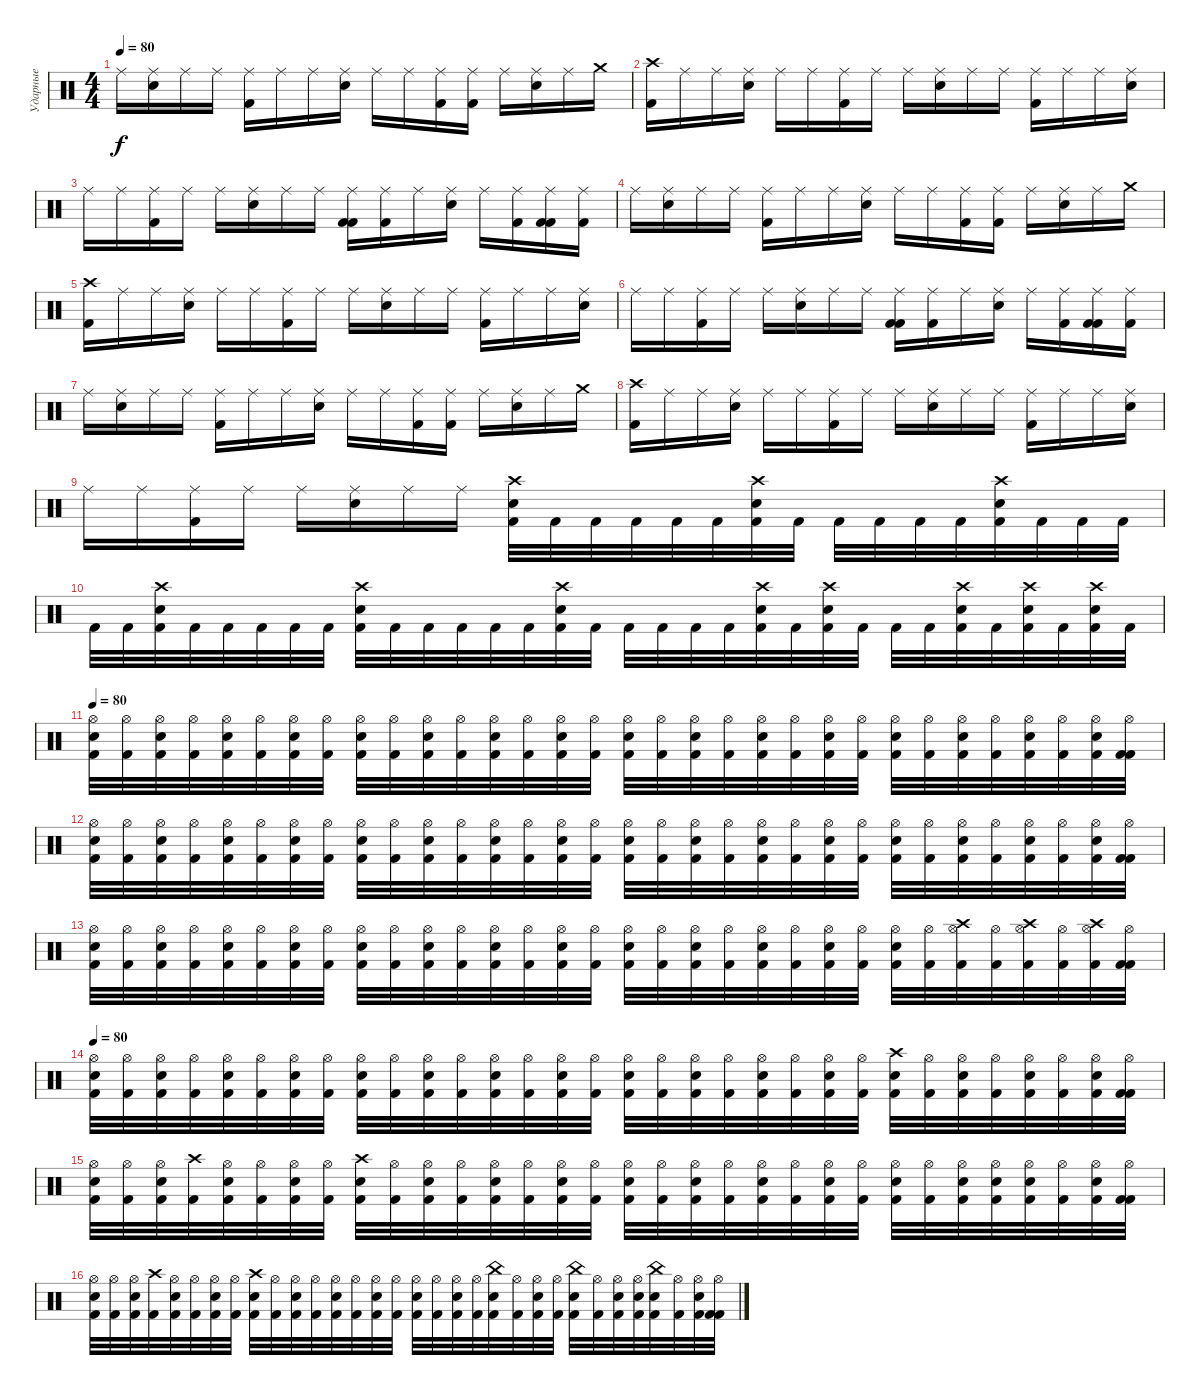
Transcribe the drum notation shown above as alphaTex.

\track ("Ударные" "Ударные") {instrument percussion}
\staff {score}
\articulation defaults
\ts (4 4)
\tempo 80
\clef neutral
\ks c "Ride (middle)".16{dy f}
("Ride (middle)" "Snare (hit) 2").16 "Ride (middle)".16 "Ride (middle)".16 ("Ride (middle)" "Kick (hit) 2").16 "Ride (middle)".16 "Ride (middle)".16 ("Snare (hit) 2" "Ride (middle)").16 "Ride (middle)".16 "Ride (middle)".16 ("Ride (middle)" "Kick (hit) 2").16 ("Ride (middle)" "Kick (hit) 2").16 "Ride (middle)".16 ("Ride (middle)" "Snare (hit) 2").16 "Ride (middle)".16 "Crash medium (hit)".16 |
("Kick (hit) 2" "Crash high (hit)").16 "Ride (middle)".16 "Ride (middle)".16 ("Snare (hit) 2" "Ride (middle)").16 "Ride (middle)".16 "Ride (middle)".16 ("Kick (hit) 2" "Ride (middle)").16 "Ride (middle)".16 "Ride (middle)".16 ("Snare (hit) 2" "Ride (middle)").16 "Ride (middle)".16 "Ride (middle)".16 ("Kick (hit) 2" "Ride (middle)").16 "Ride (middle)".16 "Ride (middle)".16 ("Snare (hit) 2" "Ride (middle)").16 |
"Ride (middle)".16 "Ride (middle)".16 ("Kick (hit) 2" "Ride (middle)").16 "Ride (middle)".16 "Ride (middle)".16 ("Snare (hit) 2" "Ride (middle)").16 "Ride (middle)".16 "Ride (middle)".16 ("Kick (hit) 2" "Kick (hit) 2" "Ride (middle)").16 ("Kick (hit) 2" "Ride (middle)").16 "Ride (middle)".16 ("Snare (hit) 2" "Ride (middle)").16 "Ride (middle)".16 ("Kick (hit) 2" "Ride (middle)").16 ("Kick (hit) 2" "Kick (hit) 2" "Ride (middle)").16 ("Kick (hit) 2" "Ride (middle)").16 |
"Ride (middle)".16 ("Ride (middle)" "Snare (hit) 2").16 "Ride (middle)".16 "Ride (middle)".16 ("Ride (middle)" "Kick (hit) 2").16 "Ride (middle)".16 "Ride (middle)".16 ("Snare (hit) 2" "Ride (middle)").16 "Ride (middle)".16 "Ride (middle)".16 ("Ride (middle)" "Kick (hit) 2").16 ("Ride (middle)" "Kick (hit) 2").16 "Ride (middle)".16 ("Ride (middle)" "Snare (hit) 2").16 "Ride (middle)".16 "Crash medium (hit)".16 |
("Kick (hit) 2" "Crash high (hit)").16 "Ride (middle)".16 "Ride (middle)".16 ("Snare (hit) 2" "Ride (middle)").16 "Ride (middle)".16 "Ride (middle)".16 ("Kick (hit) 2" "Ride (middle)").16 "Ride (middle)".16 "Ride (middle)".16 ("Snare (hit) 2" "Ride (middle)").16 "Ride (middle)".16 "Ride (middle)".16 ("Kick (hit) 2" "Ride (middle)").16 "Ride (middle)".16 "Ride (middle)".16 ("Snare (hit) 2" "Ride (middle)").16 |
"Ride (middle)".16 "Ride (middle)".16 ("Kick (hit) 2" "Ride (middle)").16 "Ride (middle)".16 "Ride (middle)".16 ("Snare (hit) 2" "Ride (middle)").16 "Ride (middle)".16 "Ride (middle)".16 ("Kick (hit) 2" "Kick (hit) 2" "Ride (middle)").16 ("Kick (hit) 2" "Ride (middle)").16 "Ride (middle)".16 ("Snare (hit) 2" "Ride (middle)").16 "Ride (middle)".16 ("Kick (hit) 2" "Ride (middle)").16 ("Kick (hit) 2" "Kick (hit) 2" "Ride (middle)").16 ("Kick (hit) 2" "Ride (middle)").16 |
"Ride (middle)".16 ("Ride (middle)" "Snare (hit) 2").16 "Ride (middle)".16 "Ride (middle)".16 ("Ride (middle)" "Kick (hit) 2").16 "Ride (middle)".16 "Ride (middle)".16 ("Snare (hit) 2" "Ride (middle)").16 "Ride (middle)".16 "Ride (middle)".16 ("Ride (middle)" "Kick (hit) 2").16 ("Ride (middle)" "Kick (hit) 2").16 "Ride (middle)".16 ("Ride (middle)" "Snare (hit) 2").16 "Ride (middle)".16 "Crash medium (hit)".16 |
("Kick (hit) 2" "Crash high (hit)").16 "Ride (middle)".16 "Ride (middle)".16 ("Snare (hit) 2" "Ride (middle)").16 "Ride (middle)".16 "Ride (middle)".16 ("Kick (hit) 2" "Ride (middle)").16 "Ride (middle)".16 "Ride (middle)".16 ("Snare (hit) 2" "Ride (middle)").16 "Ride (middle)".16 "Ride (middle)".16 ("Kick (hit) 2" "Ride (middle)").16 "Ride (middle)".16 "Ride (middle)".16 ("Snare (hit) 2" "Ride (middle)").16 |
"Ride (middle)".16 "Ride (middle)".16 ("Kick (hit) 2" "Ride (middle)").16 "Ride (middle)".16 "Ride (middle)".16 ("Snare (hit) 2" "Ride (middle)").16 "Ride (middle)".16 "Ride (middle)".16 ("Kick (hit) 2" "Snare (hit) 2" "Crash high (hit)").32 "Kick (hit) 2".32 "Kick (hit) 2".32 "Kick (hit) 2".32 "Kick (hit) 2".32 "Kick (hit) 2".32 ("Kick (hit) 2" "Crash high (hit)" "Snare (hit) 2").32 "Kick (hit) 2".32 "Kick (hit) 2".32 "Kick (hit) 2".32 "Kick (hit) 2".32 "Kick (hit) 2".32 ("Kick (hit) 2" "Crash high (hit)" "Snare (hit) 2").32 "Kick (hit) 2".32 "Kick (hit) 2".32 "Kick (hit) 2".32 |
"Kick (hit) 2".32 "Kick (hit) 2".32 ("Kick (hit) 2" "Crash high (hit)" "Snare (hit) 2").32 "Kick (hit) 2".32 "Kick (hit) 2".32 "Kick (hit) 2".32 "Kick (hit) 2".32 "Kick (hit) 2".32 ("Kick (hit) 2" "Crash high (hit)" "Snare (hit) 2").32 "Kick (hit) 2".32 "Kick (hit) 2".32 "Kick (hit) 2".32 "Kick (hit) 2".32 "Kick (hit) 2".32 ("Kick (hit) 2" "Crash high (hit)" "Snare (hit) 2").32 "Kick (hit) 2".32 "Kick (hit) 2".32 "Kick (hit) 2".32 "Kick (hit) 2".32 "Kick (hit) 2".32 ("Kick (hit) 2" "Crash high (hit)" "Snare (hit) 2").32 "Kick (hit) 2".32 ("Kick (hit) 2" "Crash high (hit)" "Snare (hit) 2").32 "Kick (hit) 2".32 "Kick (hit) 2".32 "Kick (hit) 2".32 ("Kick (hit) 2" "Crash high (hit)" "Snare (hit) 2").32 "Kick (hit) 2".32 ("Kick (hit) 2" "Crash high (hit)" "Snare (hit) 2").32 "Kick (hit) 2".32 ("Kick (hit) 2" "Crash high (hit)" "Snare (hit) 2").32 "Kick (hit) 2".32 |
\tempo 80
("Hi-Hat (open)" "Electric Snare (hit)" "Kick (hit) 2").32 ("Hi-Hat (open)" "Kick (hit) 2").32 ("Hi-Hat (open)" "Electric Snare (hit)" "Kick (hit) 2").32 ("Hi-Hat (open)" "Kick (hit) 2").32 ("Hi-Hat (open)" "Electric Snare (hit)" "Kick (hit) 2").32 ("Hi-Hat (open)" "Kick (hit) 2").32 ("Hi-Hat (open)" "Electric Snare (hit)" "Kick (hit) 2").32 ("Hi-Hat (open)" "Kick (hit) 2").32 ("Hi-Hat (open)" "Electric Snare (hit)" "Kick (hit) 2").32 ("Hi-Hat (open)" "Kick (hit) 2").32 ("Hi-Hat (open)" "Electric Snare (hit)" "Kick (hit) 2").32 ("Hi-Hat (open)" "Kick (hit) 2").32 ("Hi-Hat (open)" "Electric Snare (hit)" "Kick (hit) 2").32 ("Hi-Hat (open)" "Kick (hit) 2").32 ("Hi-Hat (open)" "Electric Snare (hit)" "Kick (hit) 2").32 ("Hi-Hat (open)" "Kick (hit) 2").32 ("Hi-Hat (open)" "Electric Snare (hit)" "Kick (hit) 2").32 ("Hi-Hat (open)" "Kick (hit) 2").32 ("Hi-Hat (open)" "Electric Snare (hit)" "Kick (hit) 2").32 ("Hi-Hat (open)" "Kick (hit) 2").32 ("Hi-Hat (open)" "Electric Snare (hit)" "Kick (hit) 2").32 ("Hi-Hat (open)" "Kick (hit) 2").32 ("Hi-Hat (open)" "Electric Snare (hit)" "Kick (hit) 2").32 ("Hi-Hat (open)" "Kick (hit) 2").32 ("Hi-Hat (open)" "Electric Snare (hit)" "Kick (hit) 2").32 ("Hi-Hat (open)" "Kick (hit) 2").32 ("Hi-Hat (open)" "Electric Snare (hit)" "Kick (hit) 2").32 ("Hi-Hat (open)" "Kick (hit) 2").32 ("Hi-Hat (open)" "Electric Snare (hit)" "Kick (hit) 2").32 ("Hi-Hat (open)" "Kick (hit) 2").32 ("Hi-Hat (open)" "Electric Snare (hit)" "Kick (hit) 2").32 ("Hi-Hat (open)" "Kick (hit) 2" "Kick (hit) 2").32 |
("Hi-Hat (open)" "Electric Snare (hit)" "Kick (hit) 2").32 ("Hi-Hat (open)" "Kick (hit) 2").32 ("Hi-Hat (open)" "Electric Snare (hit)" "Kick (hit) 2").32 ("Hi-Hat (open)" "Kick (hit) 2").32 ("Hi-Hat (open)" "Electric Snare (hit)" "Kick (hit) 2").32 ("Hi-Hat (open)" "Kick (hit) 2").32 ("Hi-Hat (open)" "Electric Snare (hit)" "Kick (hit) 2").32 ("Hi-Hat (open)" "Kick (hit) 2").32 ("Hi-Hat (open)" "Electric Snare (hit)" "Kick (hit) 2").32 ("Hi-Hat (open)" "Kick (hit) 2").32 ("Hi-Hat (open)" "Electric Snare (hit)" "Kick (hit) 2").32 ("Hi-Hat (open)" "Kick (hit) 2").32 ("Hi-Hat (open)" "Electric Snare (hit)" "Kick (hit) 2").32 ("Hi-Hat (open)" "Kick (hit) 2").32 ("Hi-Hat (open)" "Electric Snare (hit)" "Kick (hit) 2").32 ("Hi-Hat (open)" "Kick (hit) 2").32 ("Hi-Hat (open)" "Electric Snare (hit)" "Kick (hit) 2").32 ("Hi-Hat (open)" "Kick (hit) 2").32 ("Hi-Hat (open)" "Electric Snare (hit)" "Kick (hit) 2").32 ("Hi-Hat (open)" "Kick (hit) 2").32 ("Hi-Hat (open)" "Electric Snare (hit)" "Kick (hit) 2").32 ("Hi-Hat (open)" "Kick (hit) 2").32 ("Hi-Hat (open)" "Electric Snare (hit)" "Kick (hit) 2").32 ("Hi-Hat (open)" "Kick (hit) 2").32 ("Hi-Hat (open)" "Electric Snare (hit)" "Kick (hit) 2").32 ("Hi-Hat (open)" "Kick (hit) 2").32 ("Hi-Hat (open)" "Electric Snare (hit)" "Kick (hit) 2").32 ("Hi-Hat (open)" "Kick (hit) 2").32 ("Hi-Hat (open)" "Electric Snare (hit)" "Kick (hit) 2").32 ("Hi-Hat (open)" "Kick (hit) 2").32 ("Hi-Hat (open)" "Electric Snare (hit)" "Kick (hit) 2").32 ("Hi-Hat (open)" "Kick (hit) 2" "Kick (hit) 2").32 |
("Hi-Hat (open)" "Electric Snare (hit)" "Kick (hit) 2").32 ("Hi-Hat (open)" "Kick (hit) 2").32 ("Hi-Hat (open)" "Electric Snare (hit)" "Kick (hit) 2").32 ("Hi-Hat (open)" "Kick (hit) 2").32 ("Hi-Hat (open)" "Electric Snare (hit)" "Kick (hit) 2").32 ("Hi-Hat (open)" "Kick (hit) 2").32 ("Hi-Hat (open)" "Electric Snare (hit)" "Kick (hit) 2").32 ("Hi-Hat (open)" "Kick (hit) 2").32 ("Hi-Hat (open)" "Electric Snare (hit)" "Kick (hit) 2").32 ("Hi-Hat (open)" "Kick (hit) 2").32 ("Hi-Hat (open)" "Electric Snare (hit)" "Kick (hit) 2").32 ("Hi-Hat (open)" "Kick (hit) 2").32 ("Hi-Hat (open)" "Electric Snare (hit)" "Kick (hit) 2").32 ("Hi-Hat (open)" "Kick (hit) 2").32 ("Hi-Hat (open)" "Electric Snare (hit)" "Kick (hit) 2").32 ("Hi-Hat (open)" "Kick (hit) 2").32 ("Hi-Hat (open)" "Electric Snare (hit)" "Kick (hit) 2").32 ("Hi-Hat (open)" "Kick (hit) 2").32 ("Hi-Hat (open)" "Electric Snare (hit)" "Kick (hit) 2").32 ("Hi-Hat (open)" "Kick (hit) 2").32 ("Hi-Hat (open)" "Electric Snare (hit)" "Kick (hit) 2").32 ("Hi-Hat (open)" "Kick (hit) 2").32 ("Hi-Hat (open)" "Electric Snare (hit)" "Kick (hit) 2").32 ("Hi-Hat (open)" "Kick (hit) 2").32 ("Hi-Hat (open)" "Electric Snare (hit)" "Kick (hit) 2").32 ("Hi-Hat (open)" "Kick (hit) 2").32 ("Hi-Hat (open)" "Crash high (hit)" "Kick (hit) 2").32 ("Hi-Hat (open)" "Kick (hit) 2").32 ("Hi-Hat (open)" "Crash high (hit)" "Kick (hit) 2").32 ("Hi-Hat (open)" "Kick (hit) 2").32 ("Hi-Hat (open)" "Crash high (hit)" "Kick (hit) 2").32 ("Hi-Hat (open)" "Kick (hit) 2" "Kick (hit) 2").32 |
\tempo 80
("Hi-Hat (open)" "Electric Snare (hit)" "Kick (hit) 2").32 ("Hi-Hat (open)" "Kick (hit) 2").32 ("Hi-Hat (open)" "Electric Snare (hit)" "Kick (hit) 2").32 ("Hi-Hat (open)" "Kick (hit) 2").32 ("Hi-Hat (open)" "Electric Snare (hit)" "Kick (hit) 2").32 ("Hi-Hat (open)" "Kick (hit) 2").32 ("Hi-Hat (open)" "Electric Snare (hit)" "Kick (hit) 2").32 ("Hi-Hat (open)" "Kick (hit) 2").32 ("Hi-Hat (open)" "Electric Snare (hit)" "Kick (hit) 2").32 ("Hi-Hat (open)" "Kick (hit) 2").32 ("Hi-Hat (open)" "Electric Snare (hit)" "Kick (hit) 2").32 ("Hi-Hat (open)" "Kick (hit) 2").32 ("Hi-Hat (open)" "Electric Snare (hit)" "Kick (hit) 2").32 ("Hi-Hat (open)" "Kick (hit) 2").32 ("Hi-Hat (open)" "Electric Snare (hit)" "Kick (hit) 2").32 ("Hi-Hat (open)" "Kick (hit) 2").32 ("Hi-Hat (open)" "Electric Snare (hit)" "Kick (hit) 2").32 ("Hi-Hat (open)" "Kick (hit) 2").32 ("Hi-Hat (open)" "Electric Snare (hit)" "Kick (hit) 2").32 ("Hi-Hat (open)" "Kick (hit) 2").32 ("Hi-Hat (open)" "Electric Snare (hit)" "Kick (hit) 2").32 ("Hi-Hat (open)" "Kick (hit) 2").32 ("Hi-Hat (open)" "Electric Snare (hit)" "Kick (hit) 2").32 ("Hi-Hat (open)" "Kick (hit) 2").32 ("Crash high (hit)" "Electric Snare (hit)" "Kick (hit) 2").32 ("Hi-Hat (open)" "Kick (hit) 2").32 ("Hi-Hat (open)" "Electric Snare (hit)" "Kick (hit) 2").32 ("Hi-Hat (open)" "Kick (hit) 2").32 ("Hi-Hat (open)" "Electric Snare (hit)" "Kick (hit) 2").32 ("Hi-Hat (open)" "Kick (hit) 2").32 ("Hi-Hat (open)" "Electric Snare (hit)" "Kick (hit) 2").32 ("Hi-Hat (open)" "Kick (hit) 2" "Kick (hit) 2").32 |
("Hi-Hat (open)" "Electric Snare (hit)" "Kick (hit) 2").32 ("Hi-Hat (open)" "Kick (hit) 2").32 ("Hi-Hat (open)" "Electric Snare (hit)" "Kick (hit) 2").32 ("Crash high (hit)" "Kick (hit) 2").32 ("Hi-Hat (open)" "Electric Snare (hit)" "Kick (hit) 2").32 ("Hi-Hat (open)" "Kick (hit) 2").32 ("Hi-Hat (open)" "Electric Snare (hit)" "Kick (hit) 2").32 ("Hi-Hat (open)" "Kick (hit) 2").32 ("Crash high (hit)" "Electric Snare (hit)" "Kick (hit) 2").32 ("Hi-Hat (open)" "Kick (hit) 2").32 ("Hi-Hat (open)" "Electric Snare (hit)" "Kick (hit) 2").32 ("Hi-Hat (open)" "Kick (hit) 2").32 ("Hi-Hat (open)" "Electric Snare (hit)" "Kick (hit) 2").32 ("Hi-Hat (open)" "Kick (hit) 2").32 ("Hi-Hat (open)" "Electric Snare (hit)" "Kick (hit) 2").32 ("Hi-Hat (open)" "Kick (hit) 2").32 ("Hi-Hat (open)" "Electric Snare (hit)" "Kick (hit) 2").32 ("Hi-Hat (open)" "Kick (hit) 2").32 ("Hi-Hat (open)" "Electric Snare (hit)" "Kick (hit) 2").32 ("Hi-Hat (open)" "Kick (hit) 2").32 ("Hi-Hat (open)" "Electric Snare (hit)" "Kick (hit) 2").32 ("Hi-Hat (open)" "Kick (hit) 2").32 ("Hi-Hat (open)" "Electric Snare (hit)" "Kick (hit) 2").32 ("Hi-Hat (open)" "Kick (hit) 2").32 ("Hi-Hat (open)" "Electric Snare (hit)" "Kick (hit) 2").32 ("Hi-Hat (open)" "Kick (hit) 2").32 ("Hi-Hat (open)" "Electric Snare (hit)" "Kick (hit) 2").32 ("Hi-Hat (open)" "Snare (hit)" "Kick (hit) 2").32 ("Hi-Hat (open)" "Electric Snare (hit)" "Kick (hit) 2").32 ("Hi-Hat (open)" "Kick (hit) 2").32 ("Hi-Hat (open)" "Electric Snare (hit)" "Kick (hit) 2").32 ("Hi-Hat (open)" "Kick (hit) 2" "Kick (hit) 2").32 |
("Hi-Hat (open)" "Electric Snare (hit)" "Kick (hit) 2").32 ("Hi-Hat (open)" "Kick (hit) 2").32 ("Hi-Hat (open)" "Electric Snare (hit)" "Kick (hit) 2").32 ("Crash high (hit)" "Kick (hit) 2").32 ("Hi-Hat (open)" "Electric Snare (hit)" "Kick (hit) 2").32 ("Hi-Hat (open)" "Kick (hit) 2").32 ("Hi-Hat (open)" "Electric Snare (hit)" "Kick (hit) 2").32 ("Hi-Hat (open)" "Kick (hit) 2").32 ("Crash high (hit)" "Electric Snare (hit)" "Kick (hit) 2").32 ("Hi-Hat (open)" "Kick (hit) 2").32 ("Hi-Hat (open)" "Electric Snare (hit)" "Kick (hit) 2").32 ("Hi-Hat (open)" "Kick (hit) 2").32 ("Hi-Hat (open)" "Electric Snare (hit)" "Kick (hit) 2").32 ("Hi-Hat (open)" "Kick (hit) 2").32 ("Hi-Hat (open)" "Electric Snare (hit)" "Kick (hit) 2").32 ("Hi-Hat (open)" "Kick (hit) 2").32 ("Hi-Hat (open)" "Electric Snare (hit)" "Kick (hit) 2").32 ("Hi-Hat (open)" "Kick (hit) 2").32 ("Hi-Hat (open)" "Electric Snare (hit)" "Kick (hit) 2").32 ("Hi-Hat (open)" "Kick (hit) 2").32 ("China (hit)" "Electric Snare (hit)" "Kick (hit) 2").32 ("Hi-Hat (open)" "Kick (hit) 2").32 ("Hi-Hat (open)" "Electric Snare (hit)" "Kick (hit) 2").32 ("Hi-Hat (open)" "Kick (hit) 2").32 ("China (hit)" "Electric Snare (hit)" "Kick (hit) 2").32 ("Hi-Hat (open)" "Kick (hit) 2").32 ("Hi-Hat (open)" "Electric Snare (hit)" "Kick (hit) 2").32 ("Hi-Hat (open)" "Snare (hit)" "Kick (hit) 2").32 ("China (hit)" "Electric Snare (hit)" "Kick (hit) 2").32 ("Hi-Hat (open)" "Kick (hit) 2").32 ("Hi-Hat (open)" "Electric Snare (hit)" "Kick (hit) 2").32 ("Hi-Hat (open)" "Kick (hit) 2" "Kick (hit) 2").32
